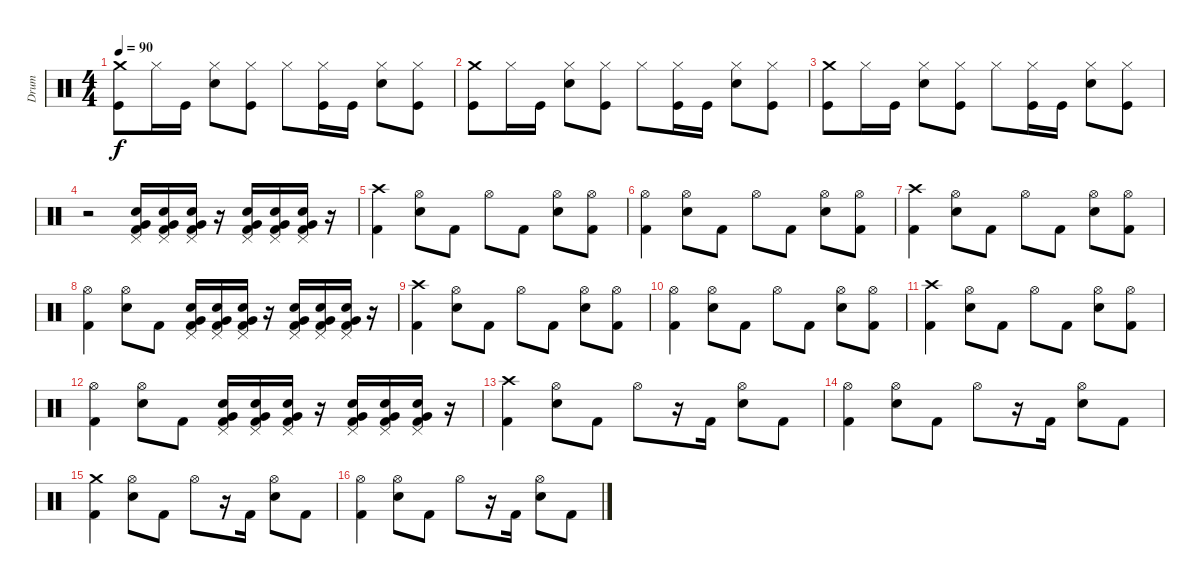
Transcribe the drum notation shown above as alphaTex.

\track ("Drum" "Drum") {instrument percussion}
\staff {score}
\articulation defaults
\ts (4 4)
\tempo 90
\clef neutral
\ks c
("Crash medium (hit)" "Kick (hit)").8{dy f} "Hi-Hat (closed)".16 "Kick (hit)".16 ("Hi-Hat (closed)" "Snare (hit) 2").8 ("Hi-Hat (closed)" "Kick (hit)").8 "Hi-Hat (closed)".8 ("Hi-Hat (closed)" "Kick (hit)").16 "Kick (hit)".16 ("Hi-Hat (closed)" "Snare (hit) 2").8 ("Hi-Hat (closed)" "Kick (hit)").8 |
("Crash medium (hit)" "Kick (hit)").8 "Hi-Hat (closed)".16 "Kick (hit)".16 ("Hi-Hat (closed)" "Snare (hit) 2").8 ("Hi-Hat (closed)" "Kick (hit)").8 "Hi-Hat (closed)".8 ("Hi-Hat (closed)" "Kick (hit)").16 "Kick (hit)".16 ("Hi-Hat (closed)" "Snare (hit) 2").8 ("Hi-Hat (closed)" "Kick (hit)").8 |
("Crash medium (hit)" "Kick (hit)").8 "Hi-Hat (closed)".16 "Kick (hit)".16 ("Hi-Hat (closed)" "Snare (hit) 2").8 ("Hi-Hat (closed)" "Kick (hit)").8 "Hi-Hat (closed)".8 ("Hi-Hat (closed)" "Kick (hit)").16 "Kick (hit)".16 ("Hi-Hat (closed)" "Snare (hit) 2").8 ("Hi-Hat (closed)" "Kick (hit)").8 |
r.2 ("Pedal Hi-Hat (hit)" "Kick (hit) 2" "Electric Snare (hit)" "Very Low Tom (hit)").16 ("Pedal Hi-Hat (hit)" "Kick (hit) 2" "Electric Snare (hit)" "Very Low Tom (hit)").16 ("Pedal Hi-Hat (hit)" "Kick (hit) 2" "Electric Snare (hit)" "Very Low Tom (hit)").16 r.16 ("Pedal Hi-Hat (hit)" "Kick (hit) 2" "Electric Snare (hit)" "Very Low Tom (hit)").16 ("Pedal Hi-Hat (hit)" "Kick (hit) 2" "Electric Snare (hit)" "Very Low Tom (hit)").16 ("Pedal Hi-Hat (hit)" "Kick (hit) 2" "Electric Snare (hit)" "Very Low Tom (hit)").16 r.16 |
("Crash high (hit)" "Kick (hit) 2").4 ("Hi-Hat (open)" "Electric Snare (hit)").8 "Kick (hit) 2".8 "Hi-Hat (open)".8 "Kick (hit) 2".8 ("Hi-Hat (open)" "Electric Snare (hit)").8 ("Hi-Hat (open)" "Kick (hit) 2").8 |
("Hi-Hat (open)" "Kick (hit) 2").4 ("Hi-Hat (open)" "Electric Snare (hit)").8 "Kick (hit) 2".8 "Hi-Hat (open)".8 "Kick (hit) 2".8 ("Hi-Hat (open)" "Electric Snare (hit)").8 ("Hi-Hat (open)" "Kick (hit) 2").8 |
("Crash high (hit)" "Kick (hit) 2").4 ("Hi-Hat (open)" "Electric Snare (hit)").8 "Kick (hit) 2".8 "Hi-Hat (open)".8 "Kick (hit) 2".8 ("Hi-Hat (open)" "Electric Snare (hit)").8 ("Hi-Hat (open)" "Kick (hit) 2").8 |
("Hi-Hat (open)" "Kick (hit) 2").4 ("Hi-Hat (open)" "Electric Snare (hit)").8 "Kick (hit) 2".8 ("Pedal Hi-Hat (hit)" "Kick (hit) 2" "Electric Snare (hit)" "Very Low Tom (hit)").16 ("Pedal Hi-Hat (hit)" "Kick (hit) 2" "Electric Snare (hit)" "Very Low Tom (hit)").16 ("Pedal Hi-Hat (hit)" "Kick (hit) 2" "Electric Snare (hit)" "Very Low Tom (hit)").16 r.16 ("Pedal Hi-Hat (hit)" "Kick (hit) 2" "Electric Snare (hit)" "Very Low Tom (hit)").16 ("Pedal Hi-Hat (hit)" "Kick (hit) 2" "Electric Snare (hit)" "Very Low Tom (hit)").16 ("Pedal Hi-Hat (hit)" "Kick (hit) 2" "Electric Snare (hit)" "Very Low Tom (hit)").16 r.16 |
("Crash high (hit)" "Kick (hit) 2").4 ("Hi-Hat (open)" "Electric Snare (hit)").8 "Kick (hit) 2".8 "Hi-Hat (open)".8 "Kick (hit) 2".8 ("Hi-Hat (open)" "Electric Snare (hit)").8 ("Hi-Hat (open)" "Kick (hit) 2").8 |
("Hi-Hat (open)" "Kick (hit) 2").4 ("Hi-Hat (open)" "Electric Snare (hit)").8 "Kick (hit) 2".8 "Hi-Hat (open)".8 "Kick (hit) 2".8 ("Hi-Hat (open)" "Electric Snare (hit)").8 ("Hi-Hat (open)" "Kick (hit) 2").8 |
("Crash high (hit)" "Kick (hit) 2").4 ("Hi-Hat (open)" "Electric Snare (hit)").8 "Kick (hit) 2".8 "Hi-Hat (open)".8 "Kick (hit) 2".8 ("Hi-Hat (open)" "Electric Snare (hit)").8 ("Hi-Hat (open)" "Kick (hit) 2").8 |
("Hi-Hat (open)" "Kick (hit) 2").4 ("Hi-Hat (open)" "Electric Snare (hit)").8 "Kick (hit) 2".8 ("Pedal Hi-Hat (hit)" "Kick (hit) 2" "Electric Snare (hit)" "Very Low Tom (hit)").16 ("Pedal Hi-Hat (hit)" "Kick (hit) 2" "Electric Snare (hit)" "Very Low Tom (hit)").16 ("Pedal Hi-Hat (hit)" "Kick (hit) 2" "Electric Snare (hit)" "Very Low Tom (hit)").16 r.16 ("Pedal Hi-Hat (hit)" "Kick (hit) 2" "Electric Snare (hit)" "Very Low Tom (hit)").16 ("Pedal Hi-Hat (hit)" "Kick (hit) 2" "Electric Snare (hit)" "Very Low Tom (hit)").16 ("Pedal Hi-Hat (hit)" "Kick (hit) 2" "Electric Snare (hit)" "Very Low Tom (hit)").16 r.16 |
("Crash high (hit)" "Kick (hit) 2").4 ("Hi-Hat (open)" "Electric Snare (hit)").8 "Kick (hit) 2".8 "Hi-Hat (open)".8 r.16 "Kick (hit) 2".16 ("Hi-Hat (open)" "Electric Snare (hit)").8 "Kick (hit) 2".8 |
("Hi-Hat (open)" "Kick (hit) 2").4 ("Hi-Hat (open)" "Electric Snare (hit)").8 "Kick (hit) 2".8 "Hi-Hat (open)".8 r.16 "Kick (hit) 2".16 ("Hi-Hat (open)" "Electric Snare (hit)").8 "Kick (hit) 2".8 |
("Crash medium (hit)" "Kick (hit) 2").4 ("Hi-Hat (open)" "Electric Snare (hit)").8 "Kick (hit) 2".8 "Hi-Hat (open)".8 r.16 "Kick (hit) 2".16 ("Hi-Hat (open)" "Electric Snare (hit)").8 "Kick (hit) 2".8 |
("Hi-Hat (open)" "Kick (hit) 2").4 ("Hi-Hat (open)" "Electric Snare (hit)").8 "Kick (hit) 2".8 "Hi-Hat (open)".8 r.16 "Kick (hit) 2".16 ("Hi-Hat (open)" "Electric Snare (hit)").8 "Kick (hit) 2".8
